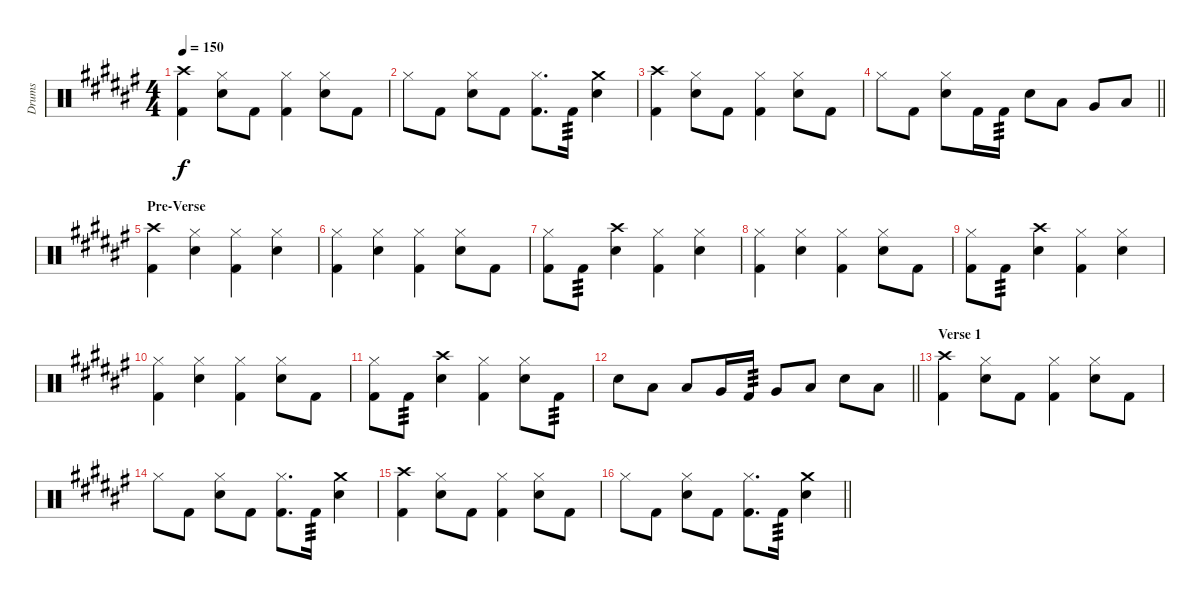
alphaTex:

\track ("Drums" "Drums") {instrument percussion}
\staff {score}
\articulation defaults
\ts (4 4)
\tempo 150
\clef neutral
\ks f#
("Crash high (hit)" "Kick (hit) 2").4{dy f} ("Electric Snare (hit)" "Hi-Hat (closed)").8 "Kick (hit) 2".8 ("Hi-Hat (closed)" "Kick (hit) 2").4 ("Electric Snare (hit)" "Hi-Hat (closed)").8 "Kick (hit) 2".8 |
"Hi-Hat (closed)".8 "Kick (hit) 2".8 ("Electric Snare (hit)" "Hi-Hat (closed)").8 "Kick (hit) 2".8 ("Hi-Hat (closed)" "Kick (hit) 2").8{d} "Kick (hit) 2".16{tp 3} ("Crash medium (hit)" "Electric Snare (hit)").4 |
("Crash high (hit)" "Kick (hit) 2").4 ("Electric Snare (hit)" "Hi-Hat (closed)").8 "Kick (hit) 2".8 ("Hi-Hat (closed)" "Kick (hit) 2").4 ("Electric Snare (hit)" "Hi-Hat (closed)").8 "Kick (hit) 2".8 |
\barLineRight lightlight "Hi-Hat (closed)".8 "Kick (hit) 2".8
("Electric Snare (hit)" "Hi-Hat (closed)").8 "Kick (hit) 2".16 "Kick (hit) 2".16{tp 3} "Electric Snare (hit)".8 "Low Floor Tom (hit)".8 "Very Low Tom (hit)".8 "Low Floor Tom (hit)".8 |
\section ("" "Pre-Verse")
("Crash high (hit)" "Kick (hit) 2").4 ("Electric Snare (hit)" "Hi-Hat (closed)").4 ("Hi-Hat (closed)" "Kick (hit) 2").4 ("Electric Snare (hit)" "Hi-Hat (closed)").4 |
("Hi-Hat (closed)" "Kick (hit) 2").4 ("Electric Snare (hit)" "Hi-Hat (closed)").4 ("Hi-Hat (closed)" "Kick (hit) 2").4 ("Electric Snare (hit)" "Hi-Hat (closed)").8 "Kick (hit) 2".8 |
("Hi-Hat (closed)" "Kick (hit) 2").8 "Kick (hit) 2".8{tp 3} ("Crash high (hit)" "Electric Snare (hit)").4 ("Hi-Hat (closed)" "Kick (hit) 2").4 ("Electric Snare (hit)" "Hi-Hat (closed)").4 |
("Hi-Hat (closed)" "Kick (hit) 2").4 ("Electric Snare (hit)" "Hi-Hat (closed)").4 ("Hi-Hat (closed)" "Kick (hit) 2").4 ("Electric Snare (hit)" "Hi-Hat (closed)").8 "Kick (hit) 2".8 |
("Hi-Hat (closed)" "Kick (hit) 2").8 "Kick (hit) 2".8{tp 3} ("Crash high (hit)" "Electric Snare (hit)").4 ("Hi-Hat (closed)" "Kick (hit) 2").4 ("Electric Snare (hit)" "Hi-Hat (closed)").4 |
("Hi-Hat (closed)" "Kick (hit) 2").4 ("Electric Snare (hit)" "Hi-Hat (closed)").4 ("Hi-Hat (closed)" "Kick (hit) 2").4 ("Electric Snare (hit)" "Hi-Hat (closed)").8 "Kick (hit) 2".8 |
("Hi-Hat (closed)" "Kick (hit) 2").8 "Kick (hit) 2".8{tp 3} ("Crash high (hit)" "Electric Snare (hit)").4 ("Hi-Hat (closed)" "Kick (hit) 2").4 ("Electric Snare (hit)" "Hi-Hat (closed)").8 "Kick (hit) 2".8{tp 3} |
\barLineRight lightlight "Electric Snare (hit)".8 "Low Tom (hit)".8 "Low Tom (hit)".8 "Very Low Tom (hit)".16 "Kick (hit) 2".16{tp 3} "Very Low Tom (hit)".8 "Low Floor Tom (hit)".8 "Electric Snare (hit)".8 "Low Floor Tom (hit)".8
|
\section ("" "Verse 1")
("Crash high (hit)" "Kick (hit) 2").4 ("Electric Snare (hit)" "Hi-Hat (closed)").8 "Kick (hit) 2".8 ("Hi-Hat (closed)" "Kick (hit) 2").4 ("Electric Snare (hit)" "Hi-Hat (closed)").8 "Kick (hit) 2".8 |
"Hi-Hat (closed)".8 "Kick (hit) 2".8 ("Electric Snare (hit)" "Hi-Hat (closed)").8 "Kick (hit) 2".8 ("Hi-Hat (closed)" "Kick (hit) 2").8{d} "Kick (hit) 2".16{tp 3} ("Crash medium (hit)" "Electric Snare (hit)").4 |
("Crash high (hit)" "Kick (hit) 2").4 ("Electric Snare (hit)" "Hi-Hat (closed)").8 "Kick (hit) 2".8 ("Hi-Hat (closed)" "Kick (hit) 2").4 ("Electric Snare (hit)" "Hi-Hat (closed)").8 "Kick (hit) 2".8 |
\barLineRight lightlight "Hi-Hat (closed)".8 "Kick (hit) 2".8
("Electric Snare (hit)" "Hi-Hat (closed)").8 "Kick (hit) 2".8 ("Hi-Hat (closed)" "Kick (hit) 2").8{d} "Kick (hit) 2".16{tp 3} ("Crash medium (hit)" "Electric Snare (hit)").4
